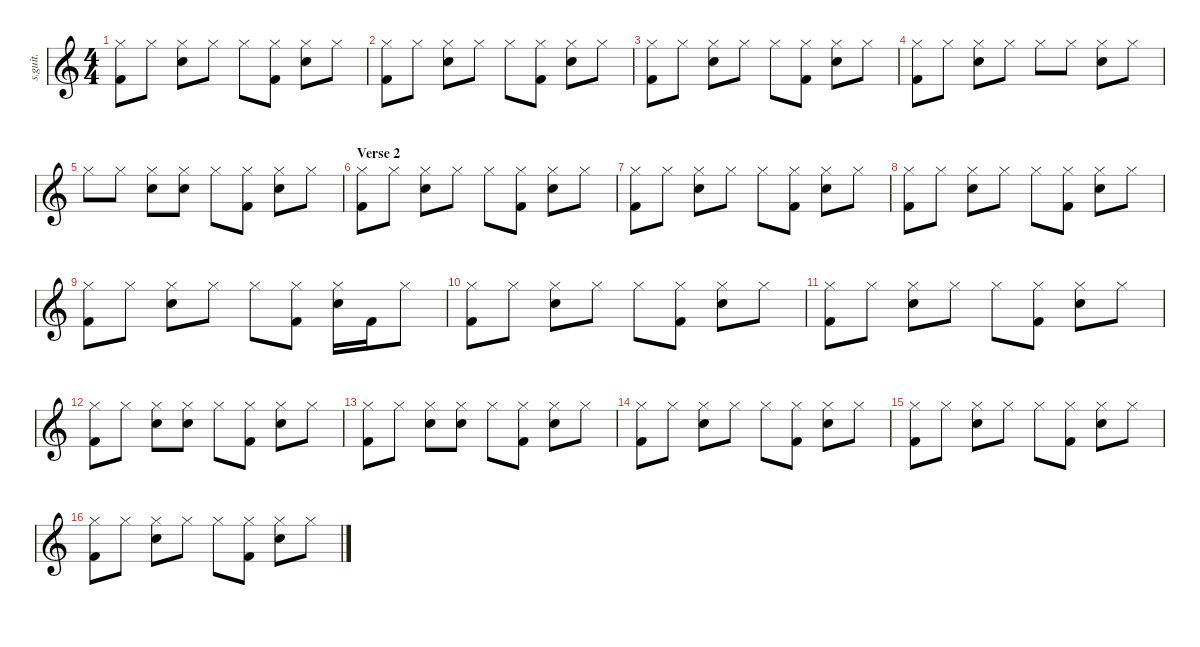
\defaultSystemsLayout 4
\hideDynamics
\bracketExtendMode nobrackets
\track ("Drums (Russel Hobbs)" "s.guit.") {instrument percussion}
\staff {score}
\articulation defaults
\ts (4 4)
\tempo (139 hide)
\clef g2
\ks c
("Hi-Hat (closed)" "Kick (hit) 2").8{lyrics (0 "") lyrics (1 "") lyrics (2 "") lyrics (3 "") lyrics (4 "") dy f} "Hi-Hat (closed)".8{lyrics (0 "") lyrics (1 "") lyrics (2 "") lyrics (3 "") lyrics (4 "")} ("Hi-Hat (closed)" "Snare (hit) 2").8{lyrics (0 "") lyrics (1 "") lyrics (2 "") lyrics (3 "") lyrics (4 "")} "Hi-Hat (closed)".8{lyrics (0 "") lyrics (1 "") lyrics (2 "") lyrics (3 "") lyrics (4 "")} "Hi-Hat (closed)".8{lyrics (0 "") lyrics (1 "") lyrics (2 "") lyrics (3 "") lyrics (4 "")} ("Hi-Hat (closed)" "Kick (hit) 2").8{lyrics (0 "") lyrics (1 "") lyrics (2 "") lyrics (3 "") lyrics (4 "")} ("Hi-Hat (closed)" "Snare (hit) 2").8{lyrics (0 "") lyrics (1 "") lyrics (2 "") lyrics (3 "") lyrics (4 "")} "Hi-Hat (closed)".8{lyrics (0 "") lyrics (1 "") lyrics (2 "") lyrics (3 "") lyrics (4 "")} |
("Hi-Hat (closed)" "Kick (hit) 2").8{lyrics (0 "") lyrics (1 "") lyrics (2 "") lyrics (3 "") lyrics (4 "")} "Hi-Hat (closed)".8{lyrics (0 "") lyrics (1 "") lyrics (2 "") lyrics (3 "") lyrics (4 "")} ("Hi-Hat (closed)" "Snare (hit) 2").8{lyrics (0 "") lyrics (1 "") lyrics (2 "") lyrics (3 "") lyrics (4 "")} "Hi-Hat (closed)".8{lyrics (0 "") lyrics (1 "") lyrics (2 "") lyrics (3 "") lyrics (4 "")} "Hi-Hat (closed)".8{lyrics (0 "") lyrics (1 "") lyrics (2 "") lyrics (3 "") lyrics (4 "")} ("Hi-Hat (closed)" "Kick (hit) 2").8{lyrics (0 "") lyrics (1 "") lyrics (2 "") lyrics (3 "") lyrics (4 "")} ("Hi-Hat (closed)" "Snare (hit) 2").8{lyrics (0 "") lyrics (1 "") lyrics (2 "") lyrics (3 "") lyrics (4 "")} "Hi-Hat (closed)".8{lyrics (0 "") lyrics (1 "") lyrics (2 "") lyrics (3 "") lyrics (4 "")} |
("Hi-Hat (closed)" "Kick (hit) 2").8{lyrics (0 "") lyrics (1 "") lyrics (2 "") lyrics (3 "") lyrics (4 "")} "Hi-Hat (closed)".8{lyrics (0 "") lyrics (1 "") lyrics (2 "") lyrics (3 "") lyrics (4 "")} ("Hi-Hat (closed)" "Snare (hit) 2").8{lyrics (0 "") lyrics (1 "") lyrics (2 "") lyrics (3 "") lyrics (4 "")} "Hi-Hat (closed)".8{lyrics (0 "") lyrics (1 "") lyrics (2 "") lyrics (3 "") lyrics (4 "")} "Hi-Hat (closed)".8{lyrics (0 "") lyrics (1 "") lyrics (2 "") lyrics (3 "") lyrics (4 "")} ("Hi-Hat (closed)" "Kick (hit) 2").8{lyrics (0 "") lyrics (1 "") lyrics (2 "") lyrics (3 "") lyrics (4 "")} ("Hi-Hat (closed)" "Snare (hit) 2").8{lyrics (0 "") lyrics (1 "") lyrics (2 "") lyrics (3 "") lyrics (4 "")} "Hi-Hat (closed)".8{lyrics (0 "") lyrics (1 "") lyrics (2 "") lyrics (3 "") lyrics (4 "")} |
("Hi-Hat (closed)" "Kick (hit) 2").8{lyrics (0 "") lyrics (1 "") lyrics (2 "") lyrics (3 "") lyrics (4 "")} "Hi-Hat (closed)".8{lyrics (0 "") lyrics (1 "") lyrics (2 "") lyrics (3 "") lyrics (4 "")} ("Hi-Hat (closed)" "Snare (hit) 2").8{lyrics (0 "") lyrics (1 "") lyrics (2 "") lyrics (3 "") lyrics (4 "")} "Hi-Hat (closed)".8{lyrics (0 "") lyrics (1 "") lyrics (2 "") lyrics (3 "") lyrics (4 "")} "Hi-Hat (closed)".8{lyrics (0 "") lyrics (1 "") lyrics (2 "") lyrics (3 "") lyrics (4 "")} "Hi-Hat (closed)".8{lyrics (0 "") lyrics (1 "") lyrics (2 "") lyrics (3 "") lyrics (4 "")} ("Hi-Hat (closed)" "Snare (hit) 2").8{lyrics (0 "") lyrics (1 "") lyrics (2 "") lyrics (3 "") lyrics (4 "")} "Hi-Hat (closed)".8{lyrics (0 "") lyrics (1 "") lyrics (2 "") lyrics (3 "") lyrics (4 "")} |
"Hi-Hat (closed)".8{lyrics (0 "") lyrics (1 "") lyrics (2 "") lyrics (3 "") lyrics (4 "")} "Hi-Hat (closed)".8{lyrics (0 "") lyrics (1 "") lyrics (2 "") lyrics (3 "") lyrics (4 "")} ("Hi-Hat (closed)" "Snare (hit) 2").8{lyrics (0 "") lyrics (1 "") lyrics (2 "") lyrics (3 "") lyrics (4 "")} ("Hi-Hat (closed)" "Snare (hit) 2").8{lyrics (0 "") lyrics (1 "") lyrics (2 "") lyrics (3 "") lyrics (4 "")} "Hi-Hat (closed)".8{lyrics (0 "") lyrics (1 "") lyrics (2 "") lyrics (3 "") lyrics (4 "")} ("Hi-Hat (closed)" "Kick (hit) 2").8{lyrics (0 "") lyrics (1 "") lyrics (2 "") lyrics (3 "") lyrics (4 "")} ("Hi-Hat (closed)" "Snare (hit) 2").8{lyrics (0 "") lyrics (1 "") lyrics (2 "") lyrics (3 "") lyrics (4 "")} "Hi-Hat (closed)".8{lyrics (0 "") lyrics (1 "") lyrics (2 "") lyrics (3 "") lyrics (4 "")} |
\section ("" "Verse 2")
("Hi-Hat (closed)" "Kick (hit) 2").8{lyrics (0 "") lyrics (1 "") lyrics (2 "") lyrics (3 "") lyrics (4 "")} "Hi-Hat (closed)".8{lyrics (0 "") lyrics (1 "") lyrics (2 "") lyrics (3 "") lyrics (4 "")} ("Hi-Hat (closed)" "Snare (hit) 2").8{lyrics (0 "") lyrics (1 "") lyrics (2 "") lyrics (3 "") lyrics (4 "")} "Hi-Hat (closed)".8{lyrics (0 "") lyrics (1 "") lyrics (2 "") lyrics (3 "") lyrics (4 "")} "Hi-Hat (closed)".8{lyrics (0 "") lyrics (1 "") lyrics (2 "") lyrics (3 "") lyrics (4 "")} ("Hi-Hat (closed)" "Kick (hit) 2").8{lyrics (0 "") lyrics (1 "") lyrics (2 "") lyrics (3 "") lyrics (4 "")} ("Hi-Hat (closed)" "Snare (hit) 2").8{lyrics (0 "") lyrics (1 "") lyrics (2 "") lyrics (3 "") lyrics (4 "")} "Hi-Hat (closed)".8{lyrics (0 "") lyrics (1 "") lyrics (2 "") lyrics (3 "") lyrics (4 "")} |
("Hi-Hat (closed)" "Kick (hit) 2").8{lyrics (0 "") lyrics (1 "") lyrics (2 "") lyrics (3 "") lyrics (4 "")} "Hi-Hat (closed)".8{lyrics (0 "") lyrics (1 "") lyrics (2 "") lyrics (3 "") lyrics (4 "")} ("Hi-Hat (closed)" "Snare (hit) 2").8{lyrics (0 "") lyrics (1 "") lyrics (2 "") lyrics (3 "") lyrics (4 "")} "Hi-Hat (closed)".8{lyrics (0 "") lyrics (1 "") lyrics (2 "") lyrics (3 "") lyrics (4 "")} "Hi-Hat (closed)".8{lyrics (0 "") lyrics (1 "") lyrics (2 "") lyrics (3 "") lyrics (4 "")} ("Hi-Hat (closed)" "Kick (hit) 2").8{lyrics (0 "") lyrics (1 "") lyrics (2 "") lyrics (3 "") lyrics (4 "")} ("Hi-Hat (closed)" "Snare (hit) 2").8{lyrics (0 "") lyrics (1 "") lyrics (2 "") lyrics (3 "") lyrics (4 "")} "Hi-Hat (closed)".8{lyrics (0 "") lyrics (1 "") lyrics (2 "") lyrics (3 "") lyrics (4 "")} |
("Hi-Hat (closed)" "Kick (hit) 2").8{lyrics (0 "") lyrics (1 "") lyrics (2 "") lyrics (3 "") lyrics (4 "")} "Hi-Hat (closed)".8{lyrics (0 "") lyrics (1 "") lyrics (2 "") lyrics (3 "") lyrics (4 "")} ("Hi-Hat (closed)" "Snare (hit) 2").8{lyrics (0 "") lyrics (1 "") lyrics (2 "") lyrics (3 "") lyrics (4 "")} "Hi-Hat (closed)".8{lyrics (0 "") lyrics (1 "") lyrics (2 "") lyrics (3 "") lyrics (4 "")} "Hi-Hat (closed)".8{lyrics (0 "") lyrics (1 "") lyrics (2 "") lyrics (3 "") lyrics (4 "")} ("Hi-Hat (closed)" "Kick (hit) 2").8{lyrics (0 "") lyrics (1 "") lyrics (2 "") lyrics (3 "") lyrics (4 "")} ("Hi-Hat (closed)" "Snare (hit) 2").8{lyrics (0 "") lyrics (1 "") lyrics (2 "") lyrics (3 "") lyrics (4 "")} "Hi-Hat (closed)".8{lyrics (0 "") lyrics (1 "") lyrics (2 "") lyrics (3 "") lyrics (4 "")} |
("Hi-Hat (closed)" "Kick (hit) 2").8{lyrics (0 "") lyrics (1 "") lyrics (2 "") lyrics (3 "") lyrics (4 "")} "Hi-Hat (closed)".8{lyrics (0 "") lyrics (1 "") lyrics (2 "") lyrics (3 "") lyrics (4 "")} ("Hi-Hat (closed)" "Snare (hit) 2").8{lyrics (0 "") lyrics (1 "") lyrics (2 "") lyrics (3 "") lyrics (4 "")} "Hi-Hat (closed)".8{lyrics (0 "") lyrics (1 "") lyrics (2 "") lyrics (3 "") lyrics (4 "")} "Hi-Hat (closed)".8{lyrics (0 "") lyrics (1 "") lyrics (2 "") lyrics (3 "") lyrics (4 "")} ("Hi-Hat (closed)" "Kick (hit) 2").8{lyrics (0 "") lyrics (1 "") lyrics (2 "") lyrics (3 "") lyrics (4 "")} ("Hi-Hat (closed)" "Snare (hit) 2").16{lyrics (0 "") lyrics (1 "") lyrics (2 "") lyrics (3 "") lyrics (4 "")} "Kick (hit) 2".16{lyrics (0 "") lyrics (1 "") lyrics (2 "") lyrics (3 "") lyrics (4 "") dy fff} "Hi-Hat (closed)".8{lyrics (0 "") lyrics (1 "") lyrics (2 "") lyrics (3 "") lyrics (4 "") dy f} |
("Hi-Hat (closed)" "Kick (hit) 2").8{lyrics (0 "") lyrics (1 "") lyrics (2 "") lyrics (3 "") lyrics (4 "")} "Hi-Hat (closed)".8{lyrics (0 "") lyrics (1 "") lyrics (2 "") lyrics (3 "") lyrics (4 "")} ("Hi-Hat (closed)" "Snare (hit) 2").8{lyrics (0 "") lyrics (1 "") lyrics (2 "") lyrics (3 "") lyrics (4 "")} "Hi-Hat (closed)".8{lyrics (0 "") lyrics (1 "") lyrics (2 "") lyrics (3 "") lyrics (4 "")} "Hi-Hat (closed)".8{lyrics (0 "") lyrics (1 "") lyrics (2 "") lyrics (3 "") lyrics (4 "")} ("Hi-Hat (closed)" "Kick (hit) 2").8{lyrics (0 "") lyrics (1 "") lyrics (2 "") lyrics (3 "") lyrics (4 "")} ("Hi-Hat (closed)" "Snare (hit) 2").8{lyrics (0 "") lyrics (1 "") lyrics (2 "") lyrics (3 "") lyrics (4 "")} "Hi-Hat (closed)".8{lyrics (0 "") lyrics (1 "") lyrics (2 "") lyrics (3 "") lyrics (4 "")} |
("Hi-Hat (closed)" "Kick (hit) 2").8{lyrics (0 "") lyrics (1 "") lyrics (2 "") lyrics (3 "") lyrics (4 "")} "Hi-Hat (closed)".8{lyrics (0 "") lyrics (1 "") lyrics (2 "") lyrics (3 "") lyrics (4 "")} ("Hi-Hat (closed)" "Snare (hit) 2").8{lyrics (0 "") lyrics (1 "") lyrics (2 "") lyrics (3 "") lyrics (4 "")} "Hi-Hat (closed)".8{lyrics (0 "") lyrics (1 "") lyrics (2 "") lyrics (3 "") lyrics (4 "")} "Hi-Hat (closed)".8{lyrics (0 "") lyrics (1 "") lyrics (2 "") lyrics (3 "") lyrics (4 "")} ("Hi-Hat (closed)" "Kick (hit) 2").8{lyrics (0 "") lyrics (1 "") lyrics (2 "") lyrics (3 "") lyrics (4 "")} ("Hi-Hat (closed)" "Snare (hit) 2").8{lyrics (0 "") lyrics (1 "") lyrics (2 "") lyrics (3 "") lyrics (4 "")} "Hi-Hat (closed)".8{lyrics (0 "") lyrics (1 "") lyrics (2 "") lyrics (3 "") lyrics (4 "")} |
("Hi-Hat (closed)" "Kick (hit) 2").8{lyrics (0 "") lyrics (1 "") lyrics (2 "") lyrics (3 "") lyrics (4 "")} "Hi-Hat (closed)".8{lyrics (0 "") lyrics (1 "") lyrics (2 "") lyrics (3 "") lyrics (4 "")} ("Hi-Hat (closed)" "Snare (hit) 2").8{lyrics (0 "") lyrics (1 "") lyrics (2 "") lyrics (3 "") lyrics (4 "")} ("Hi-Hat (closed)" "Snare (hit) 2").8{lyrics (0 "") lyrics (1 "") lyrics (2 "") lyrics (3 "") lyrics (4 "")} "Hi-Hat (closed)".8{lyrics (0 "") lyrics (1 "") lyrics (2 "") lyrics (3 "") lyrics (4 "")} ("Hi-Hat (closed)" "Kick (hit) 2").8{lyrics (0 "") lyrics (1 "") lyrics (2 "") lyrics (3 "") lyrics (4 "")} ("Hi-Hat (closed)" "Snare (hit) 2").8{lyrics (0 "") lyrics (1 "") lyrics (2 "") lyrics (3 "") lyrics (4 "")} "Hi-Hat (closed)".8{lyrics (0 "") lyrics (1 "") lyrics (2 "") lyrics (3 "") lyrics (4 "")} |
("Hi-Hat (closed)" "Kick (hit) 2").8{lyrics (0 "") lyrics (1 "") lyrics (2 "") lyrics (3 "") lyrics (4 "")} "Hi-Hat (closed)".8{lyrics (0 "") lyrics (1 "") lyrics (2 "") lyrics (3 "") lyrics (4 "")} ("Hi-Hat (closed)" "Snare (hit) 2").8{lyrics (0 "") lyrics (1 "") lyrics (2 "") lyrics (3 "") lyrics (4 "")} ("Hi-Hat (closed)" "Snare (hit) 2").8{lyrics (0 "") lyrics (1 "") lyrics (2 "") lyrics (3 "") lyrics (4 "")} "Hi-Hat (closed)".8{lyrics (0 "") lyrics (1 "") lyrics (2 "") lyrics (3 "") lyrics (4 "")} ("Hi-Hat (closed)" "Kick (hit) 2").8{lyrics (0 "") lyrics (1 "") lyrics (2 "") lyrics (3 "") lyrics (4 "")} ("Hi-Hat (closed)" "Snare (hit) 2").8{lyrics (0 "") lyrics (1 "") lyrics (2 "") lyrics (3 "") lyrics (4 "")} "Hi-Hat (closed)".8{lyrics (0 "") lyrics (1 "") lyrics (2 "") lyrics (3 "") lyrics (4 "")} |
("Hi-Hat (closed)" "Kick (hit) 2").8{lyrics (0 "") lyrics (1 "") lyrics (2 "") lyrics (3 "") lyrics (4 "")} "Hi-Hat (closed)".8{lyrics (0 "") lyrics (1 "") lyrics (2 "") lyrics (3 "") lyrics (4 "")} ("Hi-Hat (closed)" "Snare (hit) 2").8{lyrics (0 "") lyrics (1 "") lyrics (2 "") lyrics (3 "") lyrics (4 "")} "Hi-Hat (closed)".8{lyrics (0 "") lyrics (1 "") lyrics (2 "") lyrics (3 "") lyrics (4 "")} "Hi-Hat (closed)".8{lyrics (0 "") lyrics (1 "") lyrics (2 "") lyrics (3 "") lyrics (4 "")} ("Hi-Hat (closed)" "Kick (hit) 2").8{lyrics (0 "") lyrics (1 "") lyrics (2 "") lyrics (3 "") lyrics (4 "")} ("Hi-Hat (closed)" "Snare (hit) 2").8{lyrics (0 "") lyrics (1 "") lyrics (2 "") lyrics (3 "") lyrics (4 "")} "Hi-Hat (closed)".8{lyrics (0 "") lyrics (1 "") lyrics (2 "") lyrics (3 "") lyrics (4 "")} |
("Hi-Hat (closed)" "Kick (hit) 2").8{lyrics (0 "") lyrics (1 "") lyrics (2 "") lyrics (3 "") lyrics (4 "")} "Hi-Hat (closed)".8{lyrics (0 "") lyrics (1 "") lyrics (2 "") lyrics (3 "") lyrics (4 "")} ("Hi-Hat (closed)" "Snare (hit) 2").8{lyrics (0 "") lyrics (1 "") lyrics (2 "") lyrics (3 "") lyrics (4 "")} "Hi-Hat (closed)".8{lyrics (0 "") lyrics (1 "") lyrics (2 "") lyrics (3 "") lyrics (4 "")} "Hi-Hat (closed)".8{lyrics (0 "") lyrics (1 "") lyrics (2 "") lyrics (3 "") lyrics (4 "")} ("Hi-Hat (closed)" "Kick (hit) 2").8{lyrics (0 "") lyrics (1 "") lyrics (2 "") lyrics (3 "") lyrics (4 "")} ("Hi-Hat (closed)" "Snare (hit) 2").8{lyrics (0 "") lyrics (1 "") lyrics (2 "") lyrics (3 "") lyrics (4 "")} "Hi-Hat (closed)".8{lyrics (0 "") lyrics (1 "") lyrics (2 "") lyrics (3 "") lyrics (4 "")} |
("Hi-Hat (closed)" "Kick (hit) 2").8{lyrics (0 "") lyrics (1 "") lyrics (2 "") lyrics (3 "") lyrics (4 "")} "Hi-Hat (closed)".8{lyrics (0 "") lyrics (1 "") lyrics (2 "") lyrics (3 "") lyrics (4 "")} ("Hi-Hat (closed)" "Snare (hit) 2").8{lyrics (0 "") lyrics (1 "") lyrics (2 "") lyrics (3 "") lyrics (4 "")} "Hi-Hat (closed)".8{lyrics (0 "") lyrics (1 "") lyrics (2 "") lyrics (3 "") lyrics (4 "")} "Hi-Hat (closed)".8{lyrics (0 "") lyrics (1 "") lyrics (2 "") lyrics (3 "") lyrics (4 "")} ("Hi-Hat (closed)" "Kick (hit) 2").8{lyrics (0 "") lyrics (1 "") lyrics (2 "") lyrics (3 "") lyrics (4 "")} ("Hi-Hat (closed)" "Snare (hit) 2").8{lyrics (0 "") lyrics (1 "") lyrics (2 "") lyrics (3 "") lyrics (4 "")} "Hi-Hat (closed)".8{lyrics (0 "") lyrics (1 "") lyrics (2 "") lyrics (3 "") lyrics (4 "")}
